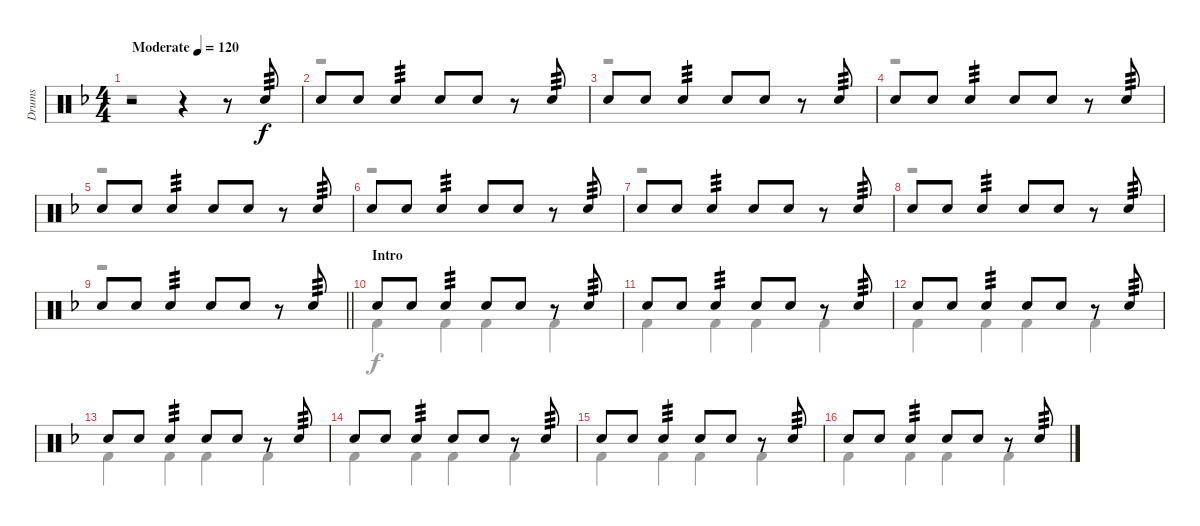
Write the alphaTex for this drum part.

\track ("Drums" "Drums") {instrument percussion}
\staff {score}
\articulation defaults
\voice
\ts (4 4)
\tempo (120 "Moderate")
\clef neutral
\ks f
r.2{dy f} r.4 r.8 "Snare (hit) 2".8{tp 3} |
"Snare (hit) 2".8 "Snare (hit) 2".8 "Snare (hit) 2".4{tp 3} "Snare (hit) 2".8 "Snare (hit) 2".8 r.8 "Snare (hit) 2".8{tp 3} |
"Snare (hit) 2".8 "Snare (hit) 2".8 "Snare (hit) 2".4{tp 3} "Snare (hit) 2".8 "Snare (hit) 2".8 r.8 "Snare (hit) 2".8{tp 3} |
"Snare (hit) 2".8 "Snare (hit) 2".8 "Snare (hit) 2".4{tp 3} "Snare (hit) 2".8 "Snare (hit) 2".8 r.8 "Snare (hit) 2".8{tp 3} |
"Snare (hit) 2".8 "Snare (hit) 2".8 "Snare (hit) 2".4{tp 3} "Snare (hit) 2".8 "Snare (hit) 2".8 r.8 "Snare (hit) 2".8{tp 3} |
"Snare (hit) 2".8 "Snare (hit) 2".8 "Snare (hit) 2".4{tp 3} "Snare (hit) 2".8 "Snare (hit) 2".8 r.8 "Snare (hit) 2".8{tp 3} |
"Snare (hit) 2".8 "Snare (hit) 2".8 "Snare (hit) 2".4{tp 3} "Snare (hit) 2".8 "Snare (hit) 2".8 r.8 "Snare (hit) 2".8{tp 3} |
"Snare (hit) 2".8 "Snare (hit) 2".8 "Snare (hit) 2".4{tp 3} "Snare (hit) 2".8 "Snare (hit) 2".8 r.8 "Snare (hit) 2".8{tp 3} |
\barLineRight lightlight "Snare (hit) 2".8 "Snare (hit) 2".8 "Snare (hit) 2".4{tp 3} "Snare (hit) 2".8 "Snare (hit) 2".8
r.8 "Snare (hit) 2".8{tp 3} |
\section ("" "Intro")
"Snare (hit) 2".8 "Snare (hit) 2".8 "Snare (hit) 2".4{tp 3} "Snare (hit) 2".8 "Snare (hit) 2".8 r.8 "Snare (hit) 2".8{tp 3} |
"Snare (hit) 2".8 "Snare (hit) 2".8 "Snare (hit) 2".4{tp 3} "Snare (hit) 2".8 "Snare (hit) 2".8 r.8 "Snare (hit) 2".8{tp 3} |
"Snare (hit) 2".8 "Snare (hit) 2".8 "Snare (hit) 2".4{tp 3} "Snare (hit) 2".8 "Snare (hit) 2".8 r.8 "Snare (hit) 2".8{tp 3} |
"Snare (hit) 2".8 "Snare (hit) 2".8 "Snare (hit) 2".4{tp 3} "Snare (hit) 2".8 "Snare (hit) 2".8 r.8 "Snare (hit) 2".8{tp 3} |
"Snare (hit) 2".8 "Snare (hit) 2".8 "Snare (hit) 2".4{tp 3} "Snare (hit) 2".8 "Snare (hit) 2".8 r.8 "Snare (hit) 2".8{tp 3} |
"Snare (hit) 2".8 "Snare (hit) 2".8 "Snare (hit) 2".4{tp 3} "Snare (hit) 2".8 "Snare (hit) 2".8 r.8 "Snare (hit) 2".8{tp 3} |
"Snare (hit) 2".8 "Snare (hit) 2".8 "Snare (hit) 2".4{tp 3} "Snare (hit) 2".8 "Snare (hit) 2".8 r.8 "Snare (hit) 2".8{tp 3}
\voice
\clef neutral
\ottava regular
\simile none
\ks f
r.1{dy f} |
r.1 |
r.1 |
r.1 |
r.1 |
r.1 |
r.1 |
r.1 |
\barLineRight lightlight
r.1 |
"Kick (hit) 2".4 "Kick (hit) 2".4 "Kick (hit) 2".4 "Kick (hit) 2".4 |
"Kick (hit) 2".4 "Kick (hit) 2".4 "Kick (hit) 2".4 "Kick (hit) 2".4 |
"Kick (hit) 2".4 "Kick (hit) 2".4 "Kick (hit) 2".4 "Kick (hit) 2".4 |
"Kick (hit) 2".4 "Kick (hit) 2".4 "Kick (hit) 2".4 "Kick (hit) 2".4 |
"Kick (hit) 2".4 "Kick (hit) 2".4 "Kick (hit) 2".4 "Kick (hit) 2".4 |
"Kick (hit) 2".4 "Kick (hit) 2".4 "Kick (hit) 2".4 "Kick (hit) 2".4 |
"Kick (hit) 2".4 "Kick (hit) 2".4 "Kick (hit) 2".4 "Kick (hit) 2".4
